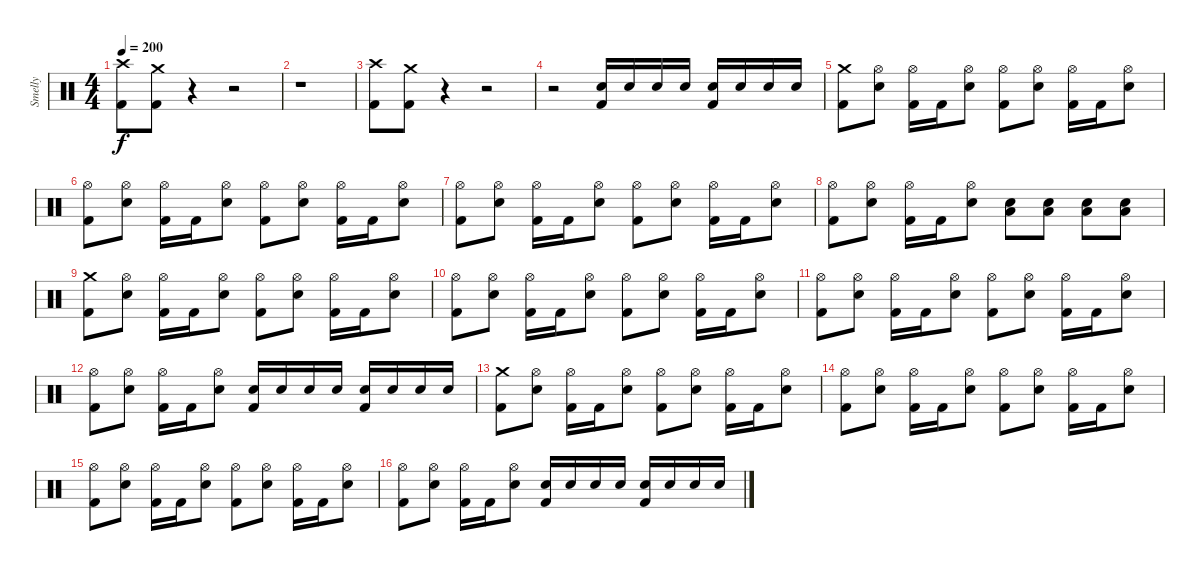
\track ("Smelly" "Smelly") {instrument percussion}
\staff {score}
\articulation defaults
\ts (4 4)
\tempo 200
\clef neutral
\ks c
("Crash high (hit)" "Kick (hit) 2").8{dy f} ("Crash medium (hit)" "Kick (hit) 2").8 r.4 r.2 |
r.1 |
("Crash high (hit)" "Kick (hit) 2").8 ("Crash medium (hit)" "Kick (hit) 2").8 r.4 r.2 |
r.2 ("Electric Snare (hit)" "Kick (hit) 2").16 "Electric Snare (hit)".16 "Electric Snare (hit)".16 "Electric Snare (hit)".16 ("Electric Snare (hit)" "Kick (hit) 2").16 "Electric Snare (hit)".16 "Electric Snare (hit)".16 "Electric Snare (hit)".16 |
("Crash medium (hit)" "Kick (hit) 2").8 ("Hi-Hat (open)" "Electric Snare (hit)").8 ("Hi-Hat (open)" "Kick (hit) 2").16 "Kick (hit) 2".16 ("Hi-Hat (open)" "Electric Snare (hit)").8 ("Hi-Hat (open)" "Kick (hit) 2").8 ("Hi-Hat (open)" "Electric Snare (hit)").8 ("Hi-Hat (open)" "Kick (hit) 2").16 "Kick (hit) 2".16 ("Hi-Hat (open)" "Electric Snare (hit)").8 |
("Hi-Hat (open)" "Kick (hit) 2").8 ("Hi-Hat (open)" "Electric Snare (hit)").8 ("Hi-Hat (open)" "Kick (hit) 2").16 "Kick (hit) 2".16 ("Hi-Hat (open)" "Electric Snare (hit)").8 ("Hi-Hat (open)" "Kick (hit) 2").8 ("Hi-Hat (open)" "Electric Snare (hit)").8 ("Hi-Hat (open)" "Kick (hit) 2").16 "Kick (hit) 2".16 ("Hi-Hat (open)" "Electric Snare (hit)").8 |
("Hi-Hat (open)" "Kick (hit) 2").8 ("Hi-Hat (open)" "Electric Snare (hit)").8 ("Hi-Hat (open)" "Kick (hit) 2").16 "Kick (hit) 2".16 ("Hi-Hat (open)" "Electric Snare (hit)").8 ("Hi-Hat (open)" "Kick (hit) 2").8 ("Hi-Hat (open)" "Electric Snare (hit)").8 ("Hi-Hat (open)" "Kick (hit) 2").16 "Kick (hit) 2".16 ("Hi-Hat (open)" "Electric Snare (hit)").8 |
("Hi-Hat (open)" "Kick (hit) 2").8 ("Hi-Hat (open)" "Electric Snare (hit)").8 ("Hi-Hat (open)" "Kick (hit) 2").16 "Kick (hit) 2".16 ("Hi-Hat (open)" "Electric Snare (hit)").8 ("Low Floor Tom (hit)" "Electric Snare (hit)").8 ("Low Floor Tom (hit)" "Electric Snare (hit)").8 ("Low Floor Tom (hit)" "Electric Snare (hit)").8 ("Low Floor Tom (hit)" "Electric Snare (hit)").8 |
("Crash medium (hit)" "Kick (hit) 2").8 ("Hi-Hat (open)" "Electric Snare (hit)").8 ("Hi-Hat (open)" "Kick (hit) 2").16 "Kick (hit) 2".16 ("Hi-Hat (open)" "Electric Snare (hit)").8 ("Hi-Hat (open)" "Kick (hit) 2").8 ("Hi-Hat (open)" "Electric Snare (hit)").8 ("Hi-Hat (open)" "Kick (hit) 2").16 "Kick (hit) 2".16 ("Hi-Hat (open)" "Electric Snare (hit)").8 |
("Hi-Hat (open)" "Kick (hit) 2").8 ("Hi-Hat (open)" "Electric Snare (hit)").8 ("Hi-Hat (open)" "Kick (hit) 2").16 "Kick (hit) 2".16 ("Hi-Hat (open)" "Electric Snare (hit)").8 ("Hi-Hat (open)" "Kick (hit) 2").8 ("Hi-Hat (open)" "Electric Snare (hit)").8 ("Hi-Hat (open)" "Kick (hit) 2").16 "Kick (hit) 2".16 ("Hi-Hat (open)" "Electric Snare (hit)").8 |
("Hi-Hat (open)" "Kick (hit) 2").8 ("Hi-Hat (open)" "Electric Snare (hit)").8 ("Hi-Hat (open)" "Kick (hit) 2").16 "Kick (hit) 2".16 ("Hi-Hat (open)" "Electric Snare (hit)").8 ("Hi-Hat (open)" "Kick (hit) 2").8 ("Hi-Hat (open)" "Electric Snare (hit)").8 ("Hi-Hat (open)" "Kick (hit) 2").16 "Kick (hit) 2".16 ("Hi-Hat (open)" "Electric Snare (hit)").8 |
("Hi-Hat (open)" "Kick (hit) 2").8 ("Hi-Hat (open)" "Electric Snare (hit)").8 ("Hi-Hat (open)" "Kick (hit) 2").16 "Kick (hit) 2".16 ("Hi-Hat (open)" "Electric Snare (hit)").8 ("Electric Snare (hit)" "Kick (hit) 2").16 "Electric Snare (hit)".16 "Electric Snare (hit)".16 "Electric Snare (hit)".16 ("Electric Snare (hit)" "Kick (hit) 2").16 "Electric Snare (hit)".16 "Electric Snare (hit)".16 "Electric Snare (hit)".16 |
("Crash medium (hit)" "Kick (hit) 2").8 ("Hi-Hat (open)" "Electric Snare (hit)").8 ("Hi-Hat (open)" "Kick (hit) 2").16 "Kick (hit) 2".16 ("Hi-Hat (open)" "Electric Snare (hit)").8 ("Hi-Hat (open)" "Kick (hit) 2").8 ("Hi-Hat (open)" "Electric Snare (hit)").8 ("Hi-Hat (open)" "Kick (hit) 2").16 "Kick (hit) 2".16 ("Hi-Hat (open)" "Electric Snare (hit)").8 |
("Hi-Hat (open)" "Kick (hit) 2").8 ("Hi-Hat (open)" "Electric Snare (hit)").8 ("Hi-Hat (open)" "Kick (hit) 2").16 "Kick (hit) 2".16 ("Hi-Hat (open)" "Electric Snare (hit)").8 ("Hi-Hat (open)" "Kick (hit) 2").8 ("Hi-Hat (open)" "Electric Snare (hit)").8 ("Hi-Hat (open)" "Kick (hit) 2").16 "Kick (hit) 2".16 ("Hi-Hat (open)" "Electric Snare (hit)").8 |
("Hi-Hat (open)" "Kick (hit) 2").8 ("Hi-Hat (open)" "Electric Snare (hit)").8 ("Hi-Hat (open)" "Kick (hit) 2").16 "Kick (hit) 2".16 ("Hi-Hat (open)" "Electric Snare (hit)").8 ("Hi-Hat (open)" "Kick (hit) 2").8 ("Hi-Hat (open)" "Electric Snare (hit)").8 ("Hi-Hat (open)" "Kick (hit) 2").16 "Kick (hit) 2".16 ("Hi-Hat (open)" "Electric Snare (hit)").8 |
("Hi-Hat (open)" "Kick (hit) 2").8 ("Hi-Hat (open)" "Electric Snare (hit)").8 ("Hi-Hat (open)" "Kick (hit) 2").16 "Kick (hit) 2".16 ("Hi-Hat (open)" "Electric Snare (hit)").8 ("Electric Snare (hit)" "Kick (hit) 2").16 "Electric Snare (hit)".16 "Electric Snare (hit)".16 "Electric Snare (hit)".16 ("Electric Snare (hit)" "Kick (hit) 2").16 "Electric Snare (hit)".16 "Electric Snare (hit)".16 "Electric Snare (hit)".16
